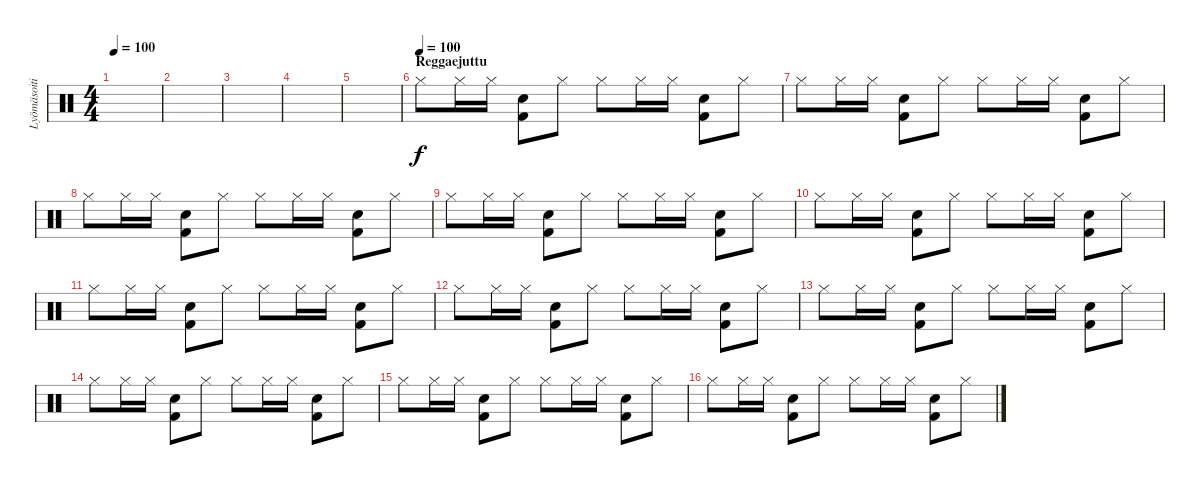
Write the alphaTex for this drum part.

\track ("Lyömäsoitin" "Lyömäsoiti") {instrument percussion}
\staff {score}
\articulation defaults
\ts (4 4)
\tempo 100
\clef neutral
\ks c
|
|
|
|
|
\section ("" "Reggaejuttu")
\tempo (100)
"Hi-Hat (closed)".8{dy f} "Hi-Hat (closed)".16 "Hi-Hat (closed)".16 ("Snare (hit) 2" "Kick (hit) 2").8 "Hi-Hat (closed)".8 "Hi-Hat (closed)".8 "Hi-Hat (closed)".16 "Hi-Hat (closed)".16 ("Snare (hit) 2" "Kick (hit) 2").8 "Hi-Hat (closed)".8 |
"Hi-Hat (closed)".8 "Hi-Hat (closed)".16 "Hi-Hat (closed)".16 ("Snare (hit) 2" "Kick (hit) 2").8 "Hi-Hat (closed)".8 "Hi-Hat (closed)".8 "Hi-Hat (closed)".16 "Hi-Hat (closed)".16 ("Snare (hit) 2" "Kick (hit) 2").8 "Hi-Hat (closed)".8 |
"Hi-Hat (closed)".8 "Hi-Hat (closed)".16 "Hi-Hat (closed)".16 ("Snare (hit) 2" "Kick (hit) 2").8 "Hi-Hat (closed)".8 "Hi-Hat (closed)".8 "Hi-Hat (closed)".16 "Hi-Hat (closed)".16 ("Snare (hit) 2" "Kick (hit) 2").8 "Hi-Hat (closed)".8 |
"Hi-Hat (closed)".8 "Hi-Hat (closed)".16 "Hi-Hat (closed)".16 ("Snare (hit) 2" "Kick (hit) 2").8 "Hi-Hat (closed)".8 "Hi-Hat (closed)".8 "Hi-Hat (closed)".16 "Hi-Hat (closed)".16 ("Snare (hit) 2" "Kick (hit) 2").8 "Hi-Hat (closed)".8 |
"Hi-Hat (closed)".8 "Hi-Hat (closed)".16 "Hi-Hat (closed)".16 ("Snare (hit) 2" "Kick (hit) 2").8 "Hi-Hat (closed)".8 "Hi-Hat (closed)".8 "Hi-Hat (closed)".16 "Hi-Hat (closed)".16 ("Snare (hit) 2" "Kick (hit) 2").8 "Hi-Hat (closed)".8 |
"Hi-Hat (closed)".8 "Hi-Hat (closed)".16 "Hi-Hat (closed)".16 ("Snare (hit) 2" "Kick (hit) 2").8 "Hi-Hat (closed)".8 "Hi-Hat (closed)".8 "Hi-Hat (closed)".16 "Hi-Hat (closed)".16 ("Snare (hit) 2" "Kick (hit) 2").8 "Hi-Hat (closed)".8 |
"Hi-Hat (closed)".8 "Hi-Hat (closed)".16 "Hi-Hat (closed)".16 ("Snare (hit) 2" "Kick (hit) 2").8 "Hi-Hat (closed)".8 "Hi-Hat (closed)".8 "Hi-Hat (closed)".16 "Hi-Hat (closed)".16 ("Snare (hit) 2" "Kick (hit) 2").8 "Hi-Hat (closed)".8 |
"Hi-Hat (closed)".8 "Hi-Hat (closed)".16 "Hi-Hat (closed)".16 ("Snare (hit) 2" "Kick (hit) 2").8 "Hi-Hat (closed)".8 "Hi-Hat (closed)".8 "Hi-Hat (closed)".16 "Hi-Hat (closed)".16 ("Snare (hit) 2" "Kick (hit) 2").8 "Hi-Hat (closed)".8 |
"Hi-Hat (closed)".8 "Hi-Hat (closed)".16 "Hi-Hat (closed)".16 ("Snare (hit) 2" "Kick (hit) 2").8 "Hi-Hat (closed)".8 "Hi-Hat (closed)".8 "Hi-Hat (closed)".16 "Hi-Hat (closed)".16 ("Snare (hit) 2" "Kick (hit) 2").8 "Hi-Hat (closed)".8 |
"Hi-Hat (closed)".8 "Hi-Hat (closed)".16 "Hi-Hat (closed)".16 ("Snare (hit) 2" "Kick (hit) 2").8 "Hi-Hat (closed)".8 "Hi-Hat (closed)".8 "Hi-Hat (closed)".16 "Hi-Hat (closed)".16 ("Snare (hit) 2" "Kick (hit) 2").8 "Hi-Hat (closed)".8 |
"Hi-Hat (closed)".8 "Hi-Hat (closed)".16 "Hi-Hat (closed)".16 ("Snare (hit) 2" "Kick (hit) 2").8 "Hi-Hat (closed)".8 "Hi-Hat (closed)".8 "Hi-Hat (closed)".16 "Hi-Hat (closed)".16 ("Snare (hit) 2" "Kick (hit) 2").8 "Hi-Hat (closed)".8
